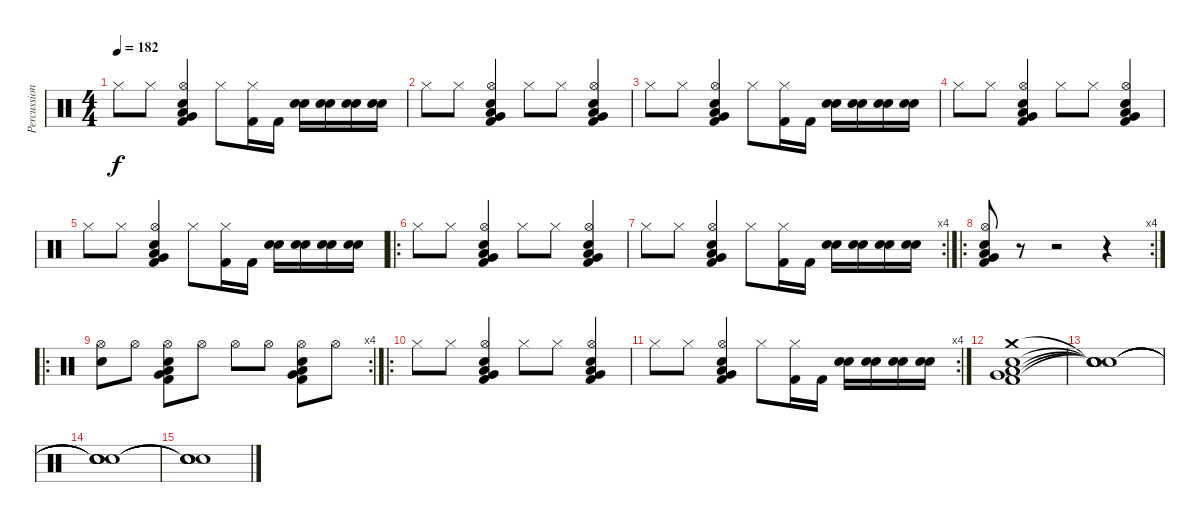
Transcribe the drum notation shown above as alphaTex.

\track ("Percussion" "Percussion") {instrument percussion}
\staff {score}
\articulation defaults
\ts (4 4)
\tempo 182
\clef neutral
\ks c "Hi-Hat (closed)".8{dy f} "Hi-Hat (closed)".8
("Low Tom (hit)" "Snare (hit) 2" "Hi-Hat (open)" "Kick (hit) 2" "Very Low Tom (hit)").4 "Hi-Hat (closed)".8 ("Hi-Hat (closed)" "Kick (hit) 2").16 "Kick (hit) 2".16 ("Snare (hit) 2" "Snare (hit) 2").16 ("Snare (hit) 2" "Snare (hit) 2").16 ("Snare (hit) 2" "Snare (hit) 2").16 ("Snare (hit) 2" "Snare (hit) 2").16 |
"Hi-Hat (closed)".8 "Hi-Hat (closed)".8 ("Low Tom (hit)" "Snare (hit) 2" "Hi-Hat (open)" "Kick (hit) 2" "Very Low Tom (hit)").4 "Hi-Hat (closed)".8 "Hi-Hat (closed)".8 ("Low Tom (hit)" "Snare (hit) 2" "Hi-Hat (open)" "Kick (hit) 2" "Very Low Tom (hit)").4 |
"Hi-Hat (closed)".8 "Hi-Hat (closed)".8 ("Low Tom (hit)" "Snare (hit) 2" "Hi-Hat (open)" "Kick (hit) 2" "Very Low Tom (hit)").4 "Hi-Hat (closed)".8 ("Hi-Hat (closed)" "Kick (hit) 2").16 "Kick (hit) 2".16 ("Snare (hit) 2" "Snare (hit) 2").16 ("Snare (hit) 2" "Snare (hit) 2").16 ("Snare (hit) 2" "Snare (hit) 2").16 ("Snare (hit) 2" "Snare (hit) 2").16 |
"Hi-Hat (closed)".8 "Hi-Hat (closed)".8 ("Low Tom (hit)" "Snare (hit) 2" "Hi-Hat (open)" "Kick (hit) 2" "Very Low Tom (hit)").4 "Hi-Hat (closed)".8 "Hi-Hat (closed)".8 ("Low Tom (hit)" "Snare (hit) 2" "Hi-Hat (open)" "Kick (hit) 2" "Very Low Tom (hit)").4 |
"Hi-Hat (closed)".8 "Hi-Hat (closed)".8 ("Low Tom (hit)" "Snare (hit) 2" "Hi-Hat (open)" "Kick (hit) 2" "Very Low Tom (hit)").4 "Hi-Hat (closed)".8 ("Hi-Hat (closed)" "Kick (hit) 2").16 "Kick (hit) 2".16 ("Snare (hit) 2" "Snare (hit) 2").16 ("Snare (hit) 2" "Snare (hit) 2").16 ("Snare (hit) 2" "Snare (hit) 2").16 ("Snare (hit) 2" "Snare (hit) 2").16 |
\ro "Hi-Hat (closed)".8 "Hi-Hat (closed)".8
("Low Tom (hit)" "Snare (hit) 2" "Hi-Hat (open)" "Kick (hit) 2" "Very Low Tom (hit)").4 "Hi-Hat (closed)".8 "Hi-Hat (closed)".8 ("Low Tom (hit)" "Snare (hit) 2" "Hi-Hat (open)" "Kick (hit) 2" "Very Low Tom (hit)").4 |
\rc 4 "Hi-Hat (closed)".8 "Hi-Hat (closed)".8
("Low Tom (hit)" "Snare (hit) 2" "Hi-Hat (open)" "Kick (hit) 2" "Very Low Tom (hit)").4 "Hi-Hat (closed)".8 ("Hi-Hat (closed)" "Kick (hit) 2").16 "Kick (hit) 2".16 ("Snare (hit) 2" "Snare (hit) 2").16 ("Snare (hit) 2" "Snare (hit) 2").16 ("Snare (hit) 2" "Snare (hit) 2").16 ("Snare (hit) 2" "Snare (hit) 2").16 |
\ro
\rc 4
("Snare (hit) 2" "Low Tom (hit)" "Hi-Hat (open)" "Kick (hit) 2" "Very Low Tom (hit)").8 r.8 r.2 r.4 |
\ro
\rc 4
("Snare (hit) 2" "Hi-Hat (open)").8 "Hi-Hat (open)".8 ("Snare (hit) 2" "Low Tom (hit)" "Hi-Hat (open)" "Kick (hit) 2" "Very Low Tom (hit)").8 "Hi-Hat (open)".8 "Hi-Hat (open)".8 "Hi-Hat (open)".8 ("Snare (hit) 2" "Low Tom (hit)" "Hi-Hat (open)" "Kick (hit) 2" "Very Low Tom (hit)").8 "Hi-Hat (open)".8 |
\ro "Hi-Hat (closed)".8 "Hi-Hat (closed)".8
("Low Tom (hit)" "Snare (hit) 2" "Hi-Hat (open)" "Kick (hit) 2" "Very Low Tom (hit)").4 "Hi-Hat (closed)".8 "Hi-Hat (closed)".8 ("Low Tom (hit)" "Snare (hit) 2" "Hi-Hat (open)" "Kick (hit) 2" "Very Low Tom (hit)").4 |
\rc 4 "Hi-Hat (closed)".8 "Hi-Hat (closed)".8
("Low Tom (hit)" "Snare (hit) 2" "Hi-Hat (open)" "Kick (hit) 2" "Very Low Tom (hit)").4 "Hi-Hat (closed)".8 ("Hi-Hat (closed)" "Kick (hit) 2").16 "Kick (hit) 2".16 ("Snare (hit) 2" "Snare (hit) 2").16 ("Snare (hit) 2" "Snare (hit) 2").16 ("Snare (hit) 2" "Snare (hit) 2").16 ("Snare (hit) 2" "Snare (hit) 2").16 |
("Crash medium (hit)" "Snare (hit) 2" "Low Tom (hit)" "Kick (hit) 2" "Very Low Tom (hit)").1 |
("Snare (hit)"{t} "Snare (hit)"{t} "Snare (hit)"{t} "Snare (hit)"{t} "Snare (hit)"{t}).1 |
("Snare (hit)"{t} "Snare (hit)"{t} "Snare (hit)"{t} "Snare (hit)"{t} "Snare (hit)"{t}).1 |
("Snare (hit)"{t} "Snare (hit)"{t} "Snare (hit)"{t} "Snare (hit)"{t} "Snare (hit)"{t}).1
